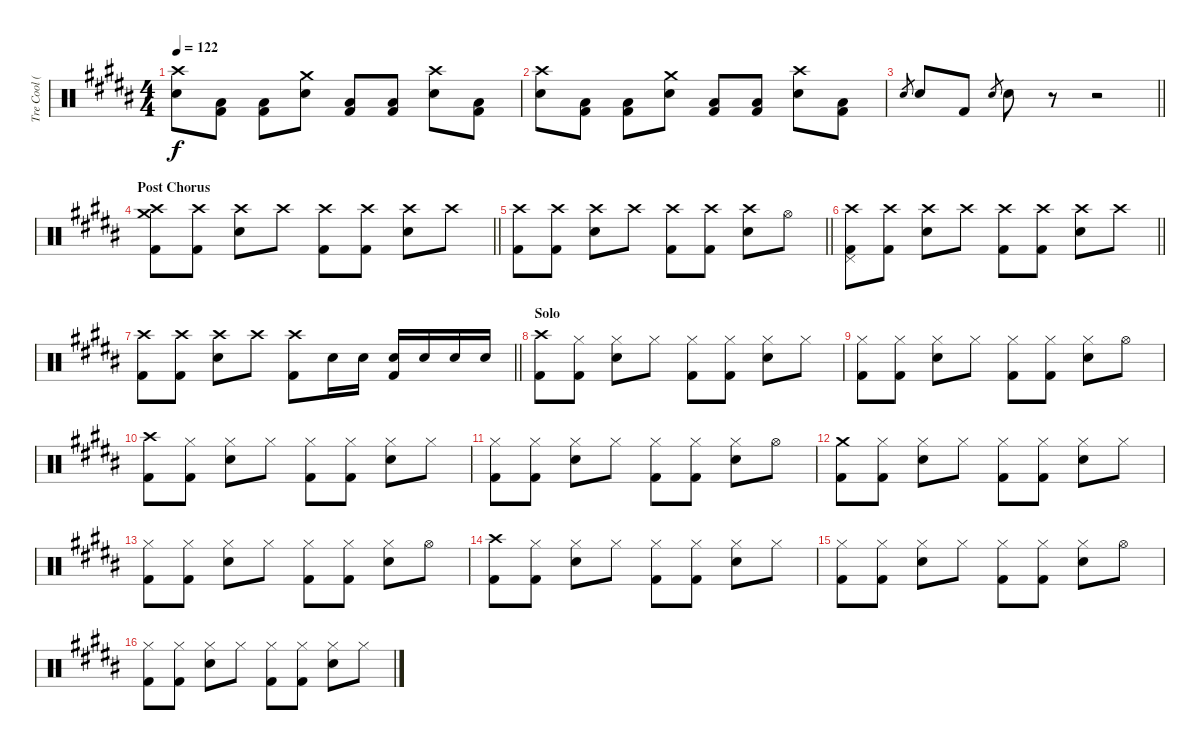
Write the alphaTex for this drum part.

\track ("Tre Cool (Drums)" "Tre Cool (") {instrument percussion}
\staff {score}
\articulation defaults
\ts (4 4)
\tempo 122
\clef neutral
\ks b
("Crash high (hit)" "Electric Snare (hit)").8{dy f} ("Low Tom (hit)" "Kick (hit) 2").8 ("Low Tom (hit)" "Kick (hit) 2").8 ("Crash medium (hit)" "Electric Snare (hit)").8 ("Low Tom (hit)" "Kick (hit) 2").8 ("Low Tom (hit)" "Kick (hit) 2").8 ("Crash high (hit)" "Electric Snare (hit)").8 ("Low Tom (hit)" "Kick (hit) 2").8 |
("Crash high (hit)" "Electric Snare (hit)").8 ("Low Tom (hit)" "Kick (hit) 2").8 ("Low Tom (hit)" "Kick (hit) 2").8 ("Crash medium (hit)" "Electric Snare (hit)").8 ("Low Tom (hit)" "Kick (hit) 2").8 ("Low Tom (hit)" "Kick (hit) 2").8 ("Crash high (hit)" "Electric Snare (hit)").8 ("Low Tom (hit)" "Kick (hit) 2").8 |
\barLineRight lightlight "Electric Snare (hit)".8{gr} "Electric Snare (hit)".8 "Kick (hit) 2".8 "Electric Snare (hit)".8{gr} "Electric Snare (hit)".8
r.8 r.2 |
\section ("" "Post Chorus")
\barLineRight lightlight
("Crash high (hit)" "Crash medium (hit)" "Kick (hit) 2").8 ("Crash high (hit)" "Kick (hit) 2").8 ("Crash high (hit)" "Electric Snare (hit)").8 "Crash high (hit)".8 ("Crash high (hit)" "Kick (hit) 2").8 ("Crash high (hit)" "Kick (hit) 2").8 ("Crash high (hit)" "Electric Snare (hit)").8 "Crash high (hit)".8 |
\barLineRight lightlight
("Crash high (hit)" "Kick (hit) 2").8 ("Crash high (hit)" "Kick (hit) 2").8 ("Crash high (hit)" "Electric Snare (hit)").8 "Crash high (hit)".8 ("Crash high (hit)" "Kick (hit) 2").8 ("Crash high (hit)" "Kick (hit) 2").8 ("Crash high (hit)" "Electric Snare (hit)").8 "Hi-Hat (open)".8 |
\barLineRight lightlight
("Crash high (hit)" "Pedal Hi-Hat (hit)" "Kick (hit) 2").8 ("Crash high (hit)" "Kick (hit) 2").8 ("Crash high (hit)" "Electric Snare (hit)").8 "Crash high (hit)".8 ("Crash high (hit)" "Kick (hit) 2").8 ("Crash high (hit)" "Kick (hit) 2").8 ("Crash high (hit)" "Electric Snare (hit)").8 "Crash high (hit)".8 |
\barLineRight lightlight
("Crash high (hit)" "Kick (hit) 2").8 ("Crash high (hit)" "Kick (hit) 2").8 ("Crash high (hit)" "Electric Snare (hit)").8 "Crash high (hit)".8 ("Crash high (hit)" "Kick (hit) 2").8 "Electric Snare (hit)".16 "Electric Snare (hit)".16 ("Electric Snare (hit)" "Kick (hit) 2").16 "Electric Snare (hit)".16 "Electric Snare (hit)".16 "Electric Snare (hit)".16 |
\section ("" "Solo")
("Crash high (hit)" "Kick (hit) 2").8 ("Hi-Hat (closed)" "Kick (hit) 2").8 ("Hi-Hat (closed)" "Electric Snare (hit)").8 "Hi-Hat (closed)".8 ("Hi-Hat (closed)" "Kick (hit) 2").8 ("Hi-Hat (closed)" "Kick (hit) 2").8 ("Hi-Hat (closed)" "Electric Snare (hit)").8 "Hi-Hat (closed)".8 |
("Hi-Hat (closed)" "Kick (hit) 2").8 ("Hi-Hat (closed)" "Kick (hit) 2").8 ("Hi-Hat (closed)" "Electric Snare (hit)").8 "Hi-Hat (closed)".8 ("Hi-Hat (closed)" "Kick (hit) 2").8 ("Hi-Hat (closed)" "Kick (hit) 2").8 ("Hi-Hat (closed)" "Electric Snare (hit)").8 "Hi-Hat (open)".8 |
("Crash high (hit)" "Kick (hit) 2").8 ("Hi-Hat (closed)" "Kick (hit) 2").8 ("Hi-Hat (closed)" "Electric Snare (hit)").8 "Hi-Hat (closed)".8 ("Hi-Hat (closed)" "Kick (hit) 2").8 ("Hi-Hat (closed)" "Kick (hit) 2").8 ("Hi-Hat (closed)" "Electric Snare (hit)").8 "Hi-Hat (closed)".8 |
("Hi-Hat (closed)" "Kick (hit) 2").8 ("Hi-Hat (closed)" "Kick (hit) 2").8 ("Hi-Hat (closed)" "Electric Snare (hit)").8 "Hi-Hat (closed)".8 ("Hi-Hat (closed)" "Kick (hit) 2").8 ("Hi-Hat (closed)" "Kick (hit) 2").8 ("Hi-Hat (closed)" "Electric Snare (hit)").8 "Hi-Hat (open)".8 |
("Crash medium (hit)" "Kick (hit) 2").8 ("Hi-Hat (closed)" "Kick (hit) 2").8 ("Hi-Hat (closed)" "Electric Snare (hit)").8 "Hi-Hat (closed)".8 ("Hi-Hat (closed)" "Kick (hit) 2").8 ("Hi-Hat (closed)" "Kick (hit) 2").8 ("Hi-Hat (closed)" "Electric Snare (hit)").8 "Hi-Hat (closed)".8 |
("Hi-Hat (closed)" "Kick (hit) 2").8 ("Hi-Hat (closed)" "Kick (hit) 2").8 ("Hi-Hat (closed)" "Electric Snare (hit)").8 "Hi-Hat (closed)".8 ("Hi-Hat (closed)" "Kick (hit) 2").8 ("Hi-Hat (closed)" "Kick (hit) 2").8 ("Hi-Hat (closed)" "Electric Snare (hit)").8 "Hi-Hat (open)".8 |
("Crash high (hit)" "Kick (hit) 2").8 ("Hi-Hat (closed)" "Kick (hit) 2").8 ("Hi-Hat (closed)" "Electric Snare (hit)").8 "Hi-Hat (closed)".8 ("Hi-Hat (closed)" "Kick (hit) 2").8 ("Hi-Hat (closed)" "Kick (hit) 2").8 ("Hi-Hat (closed)" "Electric Snare (hit)").8 "Hi-Hat (closed)".8 |
("Hi-Hat (closed)" "Kick (hit) 2").8 ("Hi-Hat (closed)" "Kick (hit) 2").8 ("Hi-Hat (closed)" "Electric Snare (hit)").8 "Hi-Hat (closed)".8 ("Hi-Hat (closed)" "Kick (hit) 2").8 ("Hi-Hat (closed)" "Kick (hit) 2").8 ("Hi-Hat (closed)" "Electric Snare (hit)").8 "Hi-Hat (open)".8 |
("Hi-Hat (closed)" "Kick (hit) 2").8 ("Hi-Hat (closed)" "Kick (hit) 2").8 ("Hi-Hat (closed)" "Electric Snare (hit)").8 "Hi-Hat (closed)".8 ("Hi-Hat (closed)" "Kick (hit) 2").8 ("Hi-Hat (closed)" "Kick (hit) 2").8 ("Hi-Hat (closed)" "Electric Snare (hit)").8 "Hi-Hat (closed)".8
